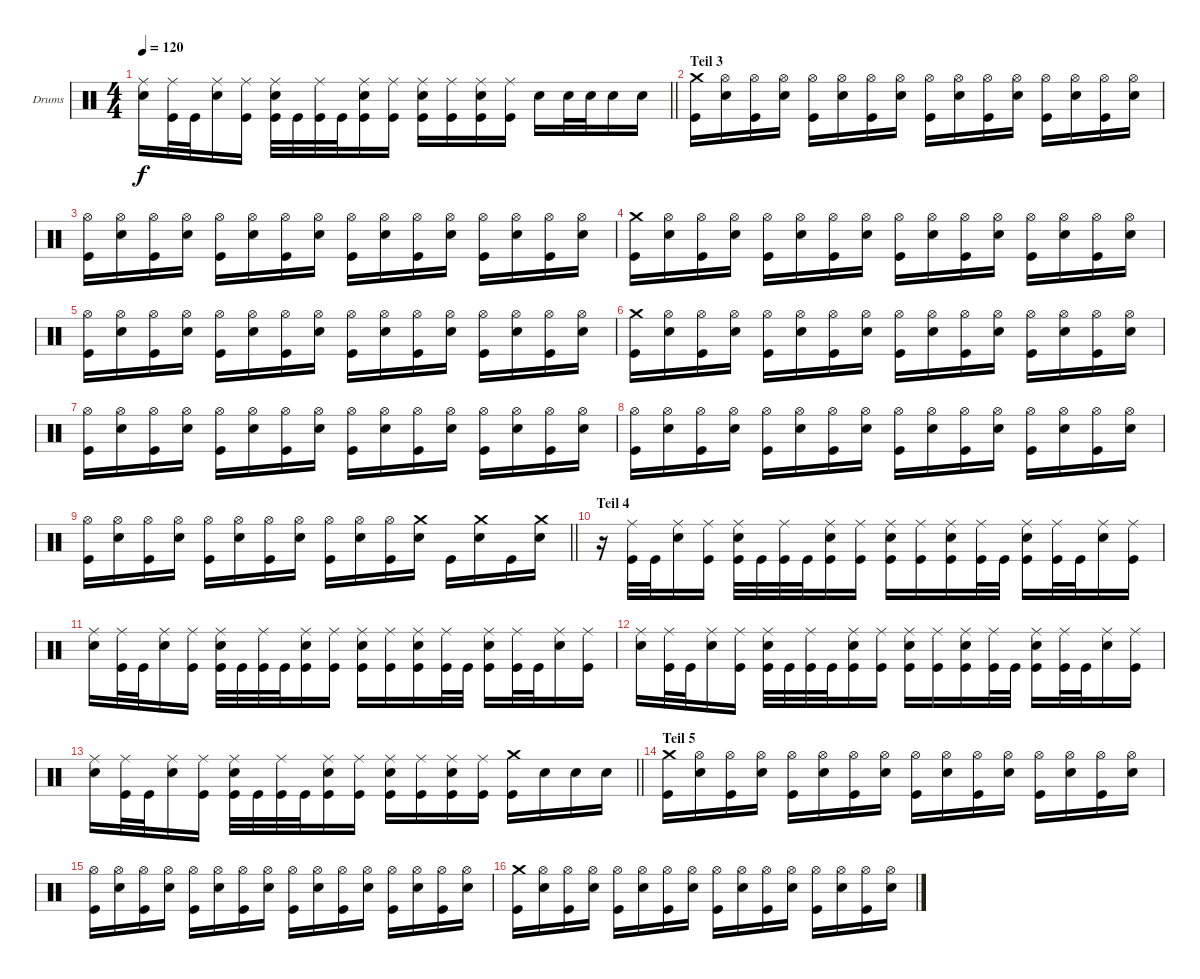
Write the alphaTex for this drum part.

\bracketExtendMode groupsimilarinstruments
\firstSystemTrackNameOrientation horizontal
\otherSystemsTrackNameOrientation horizontal
\track ("Drumkit" "Drums") {instrument percussion}
\staff {score}
\articulation defaults
\ts (4 4)
\tempo 120
\clef neutral
\barLineRight lightlight
\ks c
("Ride (middle)" "Snare (hit) 2").16{dy f} ("Ride (middle)" "Kick (hit)").32 "Kick (hit)".32 ("Ride (middle)" "Snare (hit) 2").16 ("Ride (middle)" "Kick (hit)").16 ("Ride (middle)" "Snare (hit) 2" "Kick (hit)").32 "Kick (hit)".32 ("Ride (middle)" "Kick (hit)").32 "Kick (hit)".32 ("Ride (middle)" "Snare (hit) 2" "Kick (hit)").16 ("Ride (middle)" "Kick (hit)").16 ("Ride (middle)" "Snare (hit) 2" "Kick (hit)").16 ("Ride (middle)" "Kick (hit)").16 ("Ride (middle)" "Snare (hit) 2" "Kick (hit)").16 ("Ride (middle)" "Kick (hit)").16 "Snare (hit) 2".16 "Snare (hit) 2".32 "Snare (hit) 2".32 "Snare (hit) 2".16 "Snare (hit) 2".16 |
\section ("" "Teil 3")
("Crash medium (hit)" "Kick (hit)").16 ("Hi-Hat (open)" "Snare (hit) 2").16 ("Hi-Hat (open)" "Kick (hit)").16 ("Hi-Hat (open)" "Snare (hit) 2").16 ("Hi-Hat (open)" "Kick (hit)").16 ("Hi-Hat (open)" "Snare (hit) 2").16 ("Hi-Hat (open)" "Kick (hit)").16 ("Hi-Hat (open)" "Snare (hit) 2").16 ("Hi-Hat (open)" "Kick (hit)").16 ("Hi-Hat (open)" "Snare (hit) 2").16 ("Hi-Hat (open)" "Kick (hit)").16 ("Hi-Hat (open)" "Snare (hit) 2").16 ("Hi-Hat (open)" "Kick (hit)").16 ("Hi-Hat (open)" "Snare (hit) 2").16 ("Hi-Hat (open)" "Kick (hit)").16 ("Hi-Hat (open)" "Snare (hit) 2").16 |
("Hi-Hat (open)" "Kick (hit)").16 ("Hi-Hat (open)" "Snare (hit) 2").16 ("Hi-Hat (open)" "Kick (hit)").16 ("Hi-Hat (open)" "Snare (hit) 2").16 ("Hi-Hat (open)" "Kick (hit)").16 ("Hi-Hat (open)" "Snare (hit) 2").16 ("Hi-Hat (open)" "Kick (hit)").16 ("Hi-Hat (open)" "Snare (hit) 2").16 ("Hi-Hat (open)" "Kick (hit)").16 ("Hi-Hat (open)" "Snare (hit) 2").16 ("Hi-Hat (open)" "Kick (hit)").16 ("Hi-Hat (open)" "Snare (hit) 2").16 ("Hi-Hat (open)" "Kick (hit)").16 ("Hi-Hat (open)" "Snare (hit) 2").16 ("Hi-Hat (open)" "Kick (hit)").16 ("Hi-Hat (open)" "Snare (hit) 2").16 |
("Crash medium (hit)" "Kick (hit)").16 ("Hi-Hat (open)" "Snare (hit) 2").16 ("Hi-Hat (open)" "Kick (hit)").16 ("Hi-Hat (open)" "Snare (hit) 2").16 ("Hi-Hat (open)" "Kick (hit)").16 ("Hi-Hat (open)" "Snare (hit) 2").16 ("Hi-Hat (open)" "Kick (hit)").16 ("Hi-Hat (open)" "Snare (hit) 2").16 ("Hi-Hat (open)" "Kick (hit)").16 ("Hi-Hat (open)" "Snare (hit) 2").16 ("Hi-Hat (open)" "Kick (hit)").16 ("Hi-Hat (open)" "Snare (hit) 2").16 ("Hi-Hat (open)" "Kick (hit)").16 ("Hi-Hat (open)" "Snare (hit) 2").16 ("Hi-Hat (open)" "Kick (hit)").16 ("Hi-Hat (open)" "Snare (hit) 2").16 |
("Hi-Hat (open)" "Kick (hit)").16 ("Hi-Hat (open)" "Snare (hit) 2").16 ("Hi-Hat (open)" "Kick (hit)").16 ("Hi-Hat (open)" "Snare (hit) 2").16 ("Hi-Hat (open)" "Kick (hit)").16 ("Hi-Hat (open)" "Snare (hit) 2").16 ("Hi-Hat (open)" "Kick (hit)").16 ("Hi-Hat (open)" "Snare (hit) 2").16 ("Hi-Hat (open)" "Kick (hit)").16 ("Hi-Hat (open)" "Snare (hit) 2").16 ("Hi-Hat (open)" "Kick (hit)").16 ("Hi-Hat (open)" "Snare (hit) 2").16 ("Hi-Hat (open)" "Kick (hit)").16 ("Hi-Hat (open)" "Snare (hit) 2").16 ("Hi-Hat (open)" "Kick (hit)").16 ("Hi-Hat (open)" "Snare (hit) 2").16 |
("Crash medium (hit)" "Kick (hit)").16 ("Hi-Hat (open)" "Snare (hit) 2").16 ("Hi-Hat (open)" "Kick (hit)").16 ("Hi-Hat (open)" "Snare (hit) 2").16 ("Hi-Hat (open)" "Kick (hit)").16 ("Hi-Hat (open)" "Snare (hit) 2").16 ("Hi-Hat (open)" "Kick (hit)").16 ("Hi-Hat (open)" "Snare (hit) 2").16 ("Hi-Hat (open)" "Kick (hit)").16 ("Hi-Hat (open)" "Snare (hit) 2").16 ("Hi-Hat (open)" "Kick (hit)").16 ("Hi-Hat (open)" "Snare (hit) 2").16 ("Hi-Hat (open)" "Kick (hit)").16 ("Hi-Hat (open)" "Snare (hit) 2").16 ("Hi-Hat (open)" "Kick (hit)").16 ("Hi-Hat (open)" "Snare (hit) 2").16 |
("Hi-Hat (open)" "Kick (hit)").16 ("Hi-Hat (open)" "Snare (hit) 2").16 ("Hi-Hat (open)" "Kick (hit)").16 ("Hi-Hat (open)" "Snare (hit) 2").16 ("Hi-Hat (open)" "Kick (hit)").16 ("Hi-Hat (open)" "Snare (hit) 2").16 ("Hi-Hat (open)" "Kick (hit)").16 ("Hi-Hat (open)" "Snare (hit) 2").16 ("Hi-Hat (open)" "Kick (hit)").16 ("Hi-Hat (open)" "Snare (hit) 2").16 ("Hi-Hat (open)" "Kick (hit)").16 ("Hi-Hat (open)" "Snare (hit) 2").16 ("Hi-Hat (open)" "Kick (hit)").16 ("Hi-Hat (open)" "Snare (hit) 2").16 ("Hi-Hat (open)" "Kick (hit)").16 ("Hi-Hat (open)" "Snare (hit) 2").16 |
("Hi-Hat (open)" "Kick (hit)").16 ("Hi-Hat (open)" "Snare (hit) 2").16 ("Hi-Hat (open)" "Kick (hit)").16 ("Hi-Hat (open)" "Snare (hit) 2").16 ("Hi-Hat (open)" "Kick (hit)").16 ("Hi-Hat (open)" "Snare (hit) 2").16 ("Hi-Hat (open)" "Kick (hit)").16 ("Hi-Hat (open)" "Snare (hit) 2").16 ("Hi-Hat (open)" "Kick (hit)").16 ("Hi-Hat (open)" "Snare (hit) 2").16 ("Hi-Hat (open)" "Kick (hit)").16 ("Hi-Hat (open)" "Snare (hit) 2").16 ("Hi-Hat (open)" "Kick (hit)").16 ("Hi-Hat (open)" "Snare (hit) 2").16 ("Hi-Hat (open)" "Kick (hit)").16 ("Hi-Hat (open)" "Snare (hit) 2").16 |
\barLineRight lightlight
("Hi-Hat (open)" "Kick (hit)").16 ("Hi-Hat (open)" "Snare (hit) 2").16 ("Hi-Hat (open)" "Kick (hit)").16 ("Hi-Hat (open)" "Snare (hit) 2").16 ("Hi-Hat (open)" "Kick (hit)").16 ("Hi-Hat (open)" "Snare (hit) 2").16 ("Hi-Hat (open)" "Kick (hit)").16 ("Hi-Hat (open)" "Snare (hit) 2").16 ("Hi-Hat (open)" "Kick (hit)").16 ("Hi-Hat (open)" "Snare (hit) 2").16 ("Hi-Hat (open)" "Kick (hit)").16 ("Crash medium (hit)" "Snare (hit) 2").16 "Kick (hit)".16 ("Crash medium (hit)" "Snare (hit) 2").16 "Kick (hit)".16 ("Crash medium (hit)" "Snare (hit) 2").16 |
\section ("" "Teil 4")
r.16 ("Ride (middle)" "Kick (hit)").32 "Kick (hit)".32 ("Ride (middle)" "Snare (hit) 2").16 ("Ride (middle)" "Kick (hit)").16 ("Ride (middle)" "Snare (hit) 2" "Kick (hit)").32 "Kick (hit)".32 ("Ride (middle)" "Kick (hit)").32 "Kick (hit)".32 ("Ride (middle)" "Snare (hit) 2" "Kick (hit)").16 ("Ride (middle)" "Kick (hit)").16 ("Ride (middle)" "Snare (hit) 2" "Kick (hit)").16 ("Ride (middle)" "Kick (hit)").16 ("Ride (middle)" "Snare (hit) 2" "Kick (hit)").16 ("Ride (middle)" "Kick (hit)").32 "Kick (hit)".32 ("Ride (middle)" "Snare (hit) 2" "Kick (hit)").16 ("Ride (middle)" "Kick (hit)").32 "Kick (hit)".32 ("Ride (middle)" "Snare (hit) 2").16 ("Ride (middle)" "Kick (hit)").16 |
("Ride (middle)" "Snare (hit) 2").16 ("Ride (middle)" "Kick (hit)").32 "Kick (hit)".32 ("Ride (middle)" "Snare (hit) 2").16 ("Ride (middle)" "Kick (hit)").16 ("Ride (middle)" "Snare (hit) 2" "Kick (hit)").32 "Kick (hit)".32 ("Ride (middle)" "Kick (hit)").32 "Kick (hit)".32 ("Ride (middle)" "Snare (hit) 2" "Kick (hit)").16 ("Ride (middle)" "Kick (hit)").16 ("Ride (middle)" "Snare (hit) 2" "Kick (hit)").16 ("Ride (middle)" "Kick (hit)").16 ("Ride (middle)" "Snare (hit) 2" "Kick (hit)").16 ("Ride (middle)" "Kick (hit)").32 "Kick (hit)".32 ("Ride (middle)" "Snare (hit) 2" "Kick (hit)").16 ("Ride (middle)" "Kick (hit)").32 "Kick (hit)".32 ("Ride (middle)" "Snare (hit) 2").16 ("Ride (middle)" "Kick (hit)").16 |
("Ride (middle)" "Snare (hit) 2").16 ("Ride (middle)" "Kick (hit)").32 "Kick (hit)".32 ("Ride (middle)" "Snare (hit) 2").16 ("Ride (middle)" "Kick (hit)").16 ("Ride (middle)" "Snare (hit) 2" "Kick (hit)").32 "Kick (hit)".32 ("Ride (middle)" "Kick (hit)").32 "Kick (hit)".32 ("Ride (middle)" "Snare (hit) 2" "Kick (hit)").16 ("Ride (middle)" "Kick (hit)").16 ("Ride (middle)" "Snare (hit) 2" "Kick (hit)").16 ("Ride (middle)" "Kick (hit)").16 ("Ride (middle)" "Snare (hit) 2" "Kick (hit)").16 ("Ride (middle)" "Kick (hit)").32 "Kick (hit)".32 ("Ride (middle)" "Snare (hit) 2" "Kick (hit)").16 ("Ride (middle)" "Kick (hit)").32 "Kick (hit)".32 ("Ride (middle)" "Snare (hit) 2").16 ("Ride (middle)" "Kick (hit)").16 |
\barLineRight lightlight
("Ride (middle)" "Snare (hit) 2").16 ("Ride (middle)" "Kick (hit)").32 "Kick (hit)".32 ("Ride (middle)" "Snare (hit) 2").16 ("Ride (middle)" "Kick (hit)").16 ("Ride (middle)" "Snare (hit) 2" "Kick (hit)").32 "Kick (hit)".32 ("Ride (middle)" "Kick (hit)").32 "Kick (hit)".32 ("Ride (middle)" "Snare (hit) 2" "Kick (hit)").16 ("Ride (middle)" "Kick (hit)").16 ("Ride (middle)" "Snare (hit) 2" "Kick (hit)").16 ("Ride (middle)" "Kick (hit)").16 ("Ride (middle)" "Snare (hit) 2" "Kick (hit)").16 ("Ride (middle)" "Kick (hit)").16 ("Crash medium (hit)" "Kick (hit)").16 "Snare (hit) 2".16 "Snare (hit) 2".16 "Snare (hit) 2".16 |
\section ("" "Teil 5")
("Crash medium (hit)" "Kick (hit)").16 ("Hi-Hat (open)" "Snare (hit) 2").16 ("Hi-Hat (open)" "Kick (hit)").16 ("Hi-Hat (open)" "Snare (hit) 2").16 ("Hi-Hat (open)" "Kick (hit)").16 ("Hi-Hat (open)" "Snare (hit) 2").16 ("Hi-Hat (open)" "Kick (hit)").16 ("Hi-Hat (open)" "Snare (hit) 2").16 ("Hi-Hat (open)" "Kick (hit)").16 ("Hi-Hat (open)" "Snare (hit) 2").16 ("Hi-Hat (open)" "Kick (hit)").16 ("Hi-Hat (open)" "Snare (hit) 2").16 ("Hi-Hat (open)" "Kick (hit)").16 ("Hi-Hat (open)" "Snare (hit) 2").16 ("Hi-Hat (open)" "Kick (hit)").16 ("Hi-Hat (open)" "Snare (hit) 2").16 |
("Hi-Hat (open)" "Kick (hit)").16 ("Hi-Hat (open)" "Snare (hit) 2").16 ("Hi-Hat (open)" "Kick (hit)").16 ("Hi-Hat (open)" "Snare (hit) 2").16 ("Hi-Hat (open)" "Kick (hit)").16 ("Hi-Hat (open)" "Snare (hit) 2").16 ("Hi-Hat (open)" "Kick (hit)").16 ("Hi-Hat (open)" "Snare (hit) 2").16 ("Hi-Hat (open)" "Kick (hit)").16 ("Hi-Hat (open)" "Snare (hit) 2").16 ("Hi-Hat (open)" "Kick (hit)").16 ("Hi-Hat (open)" "Snare (hit) 2").16 ("Hi-Hat (open)" "Kick (hit)").16 ("Hi-Hat (open)" "Snare (hit) 2").16 ("Hi-Hat (open)" "Kick (hit)").16 ("Hi-Hat (open)" "Snare (hit) 2").16 |
("Crash medium (hit)" "Kick (hit)").16 ("Hi-Hat (open)" "Snare (hit) 2").16 ("Hi-Hat (open)" "Kick (hit)").16 ("Hi-Hat (open)" "Snare (hit) 2").16 ("Hi-Hat (open)" "Kick (hit)").16 ("Hi-Hat (open)" "Snare (hit) 2").16 ("Hi-Hat (open)" "Kick (hit)").16 ("Hi-Hat (open)" "Snare (hit) 2").16 ("Hi-Hat (open)" "Kick (hit)").16 ("Hi-Hat (open)" "Snare (hit) 2").16 ("Hi-Hat (open)" "Kick (hit)").16 ("Hi-Hat (open)" "Snare (hit) 2").16 ("Hi-Hat (open)" "Kick (hit)").16 ("Hi-Hat (open)" "Snare (hit) 2").16 ("Hi-Hat (open)" "Kick (hit)").16 ("Hi-Hat (open)" "Snare (hit) 2").16
